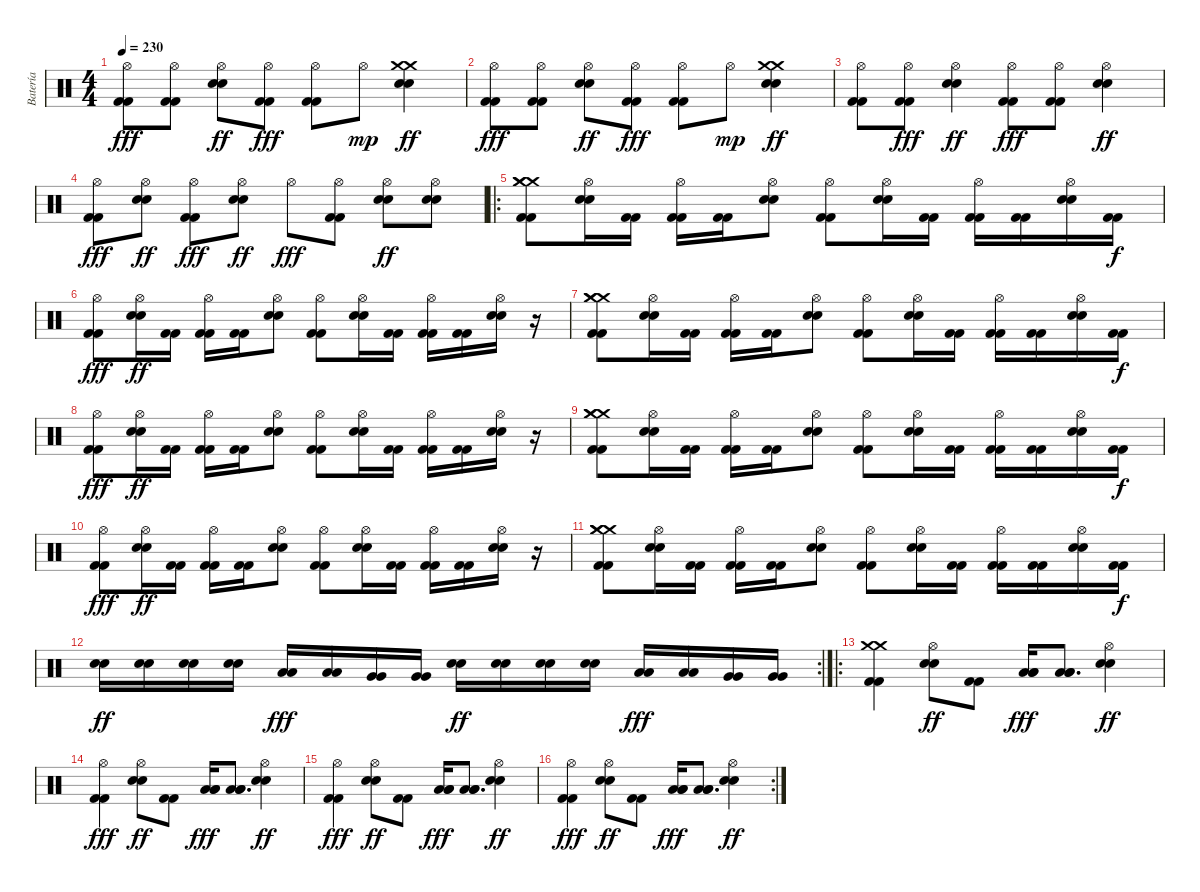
\track ("Batería" "Batería") {instrument percussion}
\staff {score}
\articulation defaults
\ts (4 4)
\tempo 230
\clef neutral
\ks c
("Hi-Hat (open)" "Kick (hit) 2" "Kick (hit) 2").8{dy fff} ("Hi-Hat (open)" "Kick (hit) 2" "Kick (hit) 2").8 ("Hi-Hat (open)" "Electric Snare (hit)" "Electric Snare (hit)").8{dy ff} ("Hi-Hat (open)" "Kick (hit) 2" "Kick (hit) 2").8{dy fff} ("Hi-Hat (open)" "Kick (hit) 2" "Kick (hit) 2").8 "Hi-Hat (open)".8{dy mp} ("Crash medium (hit)" "Crash medium (hit)" "Electric Snare (hit)" "Electric Snare (hit)").4{dy ff} |
("Hi-Hat (open)" "Kick (hit) 2" "Kick (hit) 2").8{dy fff} ("Hi-Hat (open)" "Kick (hit) 2" "Kick (hit) 2").8 ("Hi-Hat (open)" "Electric Snare (hit)" "Electric Snare (hit)").8{dy ff} ("Hi-Hat (open)" "Kick (hit) 2" "Kick (hit) 2").8{dy fff} ("Hi-Hat (open)" "Kick (hit) 2" "Kick (hit) 2").8 "Hi-Hat (open)".8{dy mp} ("Crash medium (hit)" "Crash medium (hit)" "Electric Snare (hit)" "Electric Snare (hit)").4{dy ff} |
("Hi-Hat (open)" "Kick (hit) 2" "Kick (hit) 2").8 ("Hi-Hat (open)" "Kick (hit) 2" "Kick (hit) 2").8{dy fff} ("Hi-Hat (open)" "Electric Snare (hit)" "Electric Snare (hit)").4{dy ff} ("Hi-Hat (open)" "Kick (hit) 2" "Kick (hit) 2").8{dy fff} ("Hi-Hat (open)" "Kick (hit) 2" "Kick (hit) 2").8 ("Hi-Hat (open)" "Electric Snare (hit)" "Electric Snare (hit)").4{dy ff} |
("Hi-Hat (open)" "Kick (hit) 2" "Kick (hit) 2").8{dy fff} ("Hi-Hat (open)" "Electric Snare (hit)" "Electric Snare (hit)").8{dy ff} ("Hi-Hat (open)" "Kick (hit) 2" "Kick (hit) 2").8{dy fff} ("Hi-Hat (open)" "Electric Snare (hit)" "Electric Snare (hit)").8{dy ff} "Hi-Hat (open)".8{dy fff} ("Hi-Hat (open)" "Kick (hit) 2" "Kick (hit) 2").8 ("Hi-Hat (open)" "Electric Snare (hit)" "Electric Snare (hit)").8{dy ff} ("Hi-Hat (open)" "Electric Snare (hit)" "Electric Snare (hit)").8 |
\ro
("Crash medium (hit)" "Crash medium (hit)" "Crash medium (hit)" "Kick (hit) 2" "Kick (hit) 2").8 ("Hi-Hat (open)" "Electric Snare (hit)" "Electric Snare (hit)").16 ("Kick (hit) 2" "Kick (hit) 2").16 ("Hi-Hat (open)" "Kick (hit) 2" "Kick (hit) 2").16 ("Kick (hit) 2" "Kick (hit) 2").16 ("Hi-Hat (open)" "Electric Snare (hit)" "Electric Snare (hit)").8 ("Hi-Hat (open)" "Kick (hit) 2" "Kick (hit) 2").8 ("Hi-Hat (open)" "Electric Snare (hit)" "Electric Snare (hit)").16 ("Kick (hit) 2" "Kick (hit) 2").16 ("Hi-Hat (open)" "Kick (hit) 2" "Kick (hit) 2").16 ("Kick (hit) 2" "Kick (hit) 2").16 ("Hi-Hat (open)" "Electric Snare (hit)" "Electric Snare (hit)").16 ("Kick (hit) 2" "Kick (hit) 2").16{dy f} |
("Hi-Hat (open)" "Kick (hit) 2" "Kick (hit) 2").8{dy fff} ("Hi-Hat (open)" "Electric Snare (hit)" "Electric Snare (hit)").16{dy ff} ("Kick (hit) 2" "Kick (hit) 2").16 ("Hi-Hat (open)" "Kick (hit) 2" "Kick (hit) 2").16 ("Kick (hit) 2" "Kick (hit) 2").16 ("Hi-Hat (open)" "Electric Snare (hit)" "Electric Snare (hit)").8 ("Hi-Hat (open)" "Kick (hit) 2" "Kick (hit) 2").8 ("Hi-Hat (open)" "Electric Snare (hit)" "Electric Snare (hit)").16 ("Kick (hit) 2" "Kick (hit) 2").16 ("Hi-Hat (open)" "Kick (hit) 2" "Kick (hit) 2").16 ("Kick (hit) 2" "Kick (hit) 2").16 ("Hi-Hat (open)" "Electric Snare (hit)" "Electric Snare (hit)").16 r.16 |
("Crash medium (hit)" "Crash medium (hit)" "Crash medium (hit)" "Kick (hit) 2" "Kick (hit) 2").8 ("Hi-Hat (open)" "Electric Snare (hit)" "Electric Snare (hit)").16 ("Kick (hit) 2" "Kick (hit) 2").16 ("Hi-Hat (open)" "Kick (hit) 2" "Kick (hit) 2").16 ("Kick (hit) 2" "Kick (hit) 2").16 ("Hi-Hat (open)" "Electric Snare (hit)" "Electric Snare (hit)").8 ("Hi-Hat (open)" "Kick (hit) 2" "Kick (hit) 2").8 ("Hi-Hat (open)" "Electric Snare (hit)" "Electric Snare (hit)").16 ("Kick (hit) 2" "Kick (hit) 2").16 ("Hi-Hat (open)" "Kick (hit) 2" "Kick (hit) 2").16 ("Kick (hit) 2" "Kick (hit) 2").16 ("Hi-Hat (open)" "Electric Snare (hit)" "Electric Snare (hit)").16 ("Kick (hit) 2" "Kick (hit) 2").16{dy f} |
("Hi-Hat (open)" "Kick (hit) 2" "Kick (hit) 2").8{dy fff} ("Hi-Hat (open)" "Electric Snare (hit)" "Electric Snare (hit)").16{dy ff} ("Kick (hit) 2" "Kick (hit) 2").16 ("Hi-Hat (open)" "Kick (hit) 2" "Kick (hit) 2").16 ("Kick (hit) 2" "Kick (hit) 2").16 ("Hi-Hat (open)" "Electric Snare (hit)" "Electric Snare (hit)").8 ("Hi-Hat (open)" "Kick (hit) 2" "Kick (hit) 2").8 ("Hi-Hat (open)" "Electric Snare (hit)" "Electric Snare (hit)").16 ("Kick (hit) 2" "Kick (hit) 2").16 ("Hi-Hat (open)" "Kick (hit) 2" "Kick (hit) 2").16 ("Kick (hit) 2" "Kick (hit) 2").16 ("Hi-Hat (open)" "Electric Snare (hit)" "Electric Snare (hit)").16 r.16 |
("Crash medium (hit)" "Crash medium (hit)" "Crash medium (hit)" "Kick (hit) 2" "Kick (hit) 2").8 ("Hi-Hat (open)" "Electric Snare (hit)" "Electric Snare (hit)").16 ("Kick (hit) 2" "Kick (hit) 2").16 ("Hi-Hat (open)" "Kick (hit) 2" "Kick (hit) 2").16 ("Kick (hit) 2" "Kick (hit) 2").16 ("Hi-Hat (open)" "Electric Snare (hit)" "Electric Snare (hit)").8 ("Hi-Hat (open)" "Kick (hit) 2" "Kick (hit) 2").8 ("Hi-Hat (open)" "Electric Snare (hit)" "Electric Snare (hit)").16 ("Kick (hit) 2" "Kick (hit) 2").16 ("Hi-Hat (open)" "Kick (hit) 2" "Kick (hit) 2").16 ("Kick (hit) 2" "Kick (hit) 2").16 ("Hi-Hat (open)" "Electric Snare (hit)" "Electric Snare (hit)").16 ("Kick (hit) 2" "Kick (hit) 2").16{dy f} |
("Hi-Hat (open)" "Kick (hit) 2" "Kick (hit) 2").8{dy fff} ("Hi-Hat (open)" "Electric Snare (hit)" "Electric Snare (hit)").16{dy ff} ("Kick (hit) 2" "Kick (hit) 2").16 ("Hi-Hat (open)" "Kick (hit) 2" "Kick (hit) 2").16 ("Kick (hit) 2" "Kick (hit) 2").16 ("Hi-Hat (open)" "Electric Snare (hit)" "Electric Snare (hit)").8 ("Hi-Hat (open)" "Kick (hit) 2" "Kick (hit) 2").8 ("Hi-Hat (open)" "Electric Snare (hit)" "Electric Snare (hit)").16 ("Kick (hit) 2" "Kick (hit) 2").16 ("Hi-Hat (open)" "Kick (hit) 2" "Kick (hit) 2").16 ("Kick (hit) 2" "Kick (hit) 2").16 ("Hi-Hat (open)" "Electric Snare (hit)" "Electric Snare (hit)").16 r.16 |
("Crash medium (hit)" "Crash medium (hit)" "Crash medium (hit)" "Kick (hit) 2" "Kick (hit) 2").8 ("Hi-Hat (open)" "Electric Snare (hit)" "Electric Snare (hit)").16 ("Kick (hit) 2" "Kick (hit) 2").16 ("Hi-Hat (open)" "Kick (hit) 2" "Kick (hit) 2").16 ("Kick (hit) 2" "Kick (hit) 2").16 ("Hi-Hat (open)" "Electric Snare (hit)" "Electric Snare (hit)").8 ("Hi-Hat (open)" "Kick (hit) 2" "Kick (hit) 2").8 ("Hi-Hat (open)" "Electric Snare (hit)" "Electric Snare (hit)").16 ("Kick (hit) 2" "Kick (hit) 2").16 ("Hi-Hat (open)" "Kick (hit) 2" "Kick (hit) 2").16 ("Kick (hit) 2" "Kick (hit) 2").16 ("Hi-Hat (open)" "Electric Snare (hit)" "Electric Snare (hit)").16 ("Kick (hit) 2" "Kick (hit) 2").16{dy f} |
\rc 2
("Electric Snare (hit)" "Electric Snare (hit)").16{dy ff} ("Electric Snare (hit)" "Electric Snare (hit)").16 ("Electric Snare (hit)" "Electric Snare (hit)").16 ("Electric Snare (hit)" "Electric Snare (hit)").16 ("Low Tom (hit)" "Low Tom (hit)").16{dy fff} ("Low Tom (hit)" "Low Tom (hit)").16 ("Very Low Tom (hit)" "Very Low Tom (hit)").16 ("Very Low Tom (hit)" "Very Low Tom (hit)").16 ("Electric Snare (hit)" "Electric Snare (hit)").16{dy ff} ("Electric Snare (hit)" "Electric Snare (hit)").16 ("Electric Snare (hit)" "Electric Snare (hit)").16 ("Electric Snare (hit)" "Electric Snare (hit)").16 ("Low Tom (hit)" "Low Tom (hit)").16{dy fff} ("Low Tom (hit)" "Low Tom (hit)").16 ("Very Low Tom (hit)" "Very Low Tom (hit)").16 ("Very Low Tom (hit)" "Very Low Tom (hit)").16 |
\ro
("Crash medium (hit)" "Crash medium (hit)" "Kick (hit) 2" "Kick (hit) 2").4 ("Hi-Hat (open)" "Electric Snare (hit)" "Electric Snare (hit)").8{dy ff} ("Kick (hit) 2" "Kick (hit) 2").8 ("Low Tom (hit)" "Low Floor Tom (hit)" "Low Floor Tom (hit)").16{dy fff} ("Low Tom (hit)" "Low Floor Tom (hit)" "Low Floor Tom (hit)").8{d} ("Hi-Hat (open)" "Electric Snare (hit)" "Electric Snare (hit)").4{dy ff} |
("Hi-Hat (open)" "Kick (hit) 2" "Kick (hit) 2").4{dy fff} ("Hi-Hat (open)" "Electric Snare (hit)" "Electric Snare (hit)").8{dy ff} ("Kick (hit) 2" "Kick (hit) 2").8 ("Low Tom (hit)" "Low Floor Tom (hit)" "Low Floor Tom (hit)").16{dy fff} ("Low Tom (hit)" "Low Floor Tom (hit)" "Low Floor Tom (hit)").8{d} ("Hi-Hat (open)" "Electric Snare (hit)" "Electric Snare (hit)").4{dy ff} |
("Hi-Hat (open)" "Kick (hit) 2" "Kick (hit) 2").4{dy fff} ("Hi-Hat (open)" "Electric Snare (hit)" "Electric Snare (hit)").8{dy ff} ("Kick (hit) 2" "Kick (hit) 2").8 ("Low Tom (hit)" "Low Floor Tom (hit)" "Low Floor Tom (hit)").16{dy fff} ("Low Tom (hit)" "Low Floor Tom (hit)" "Low Floor Tom (hit)").8{d} ("Hi-Hat (open)" "Electric Snare (hit)" "Electric Snare (hit)").4{dy ff} |
\rc 2
("Hi-Hat (open)" "Kick (hit) 2" "Kick (hit) 2").4{dy fff} ("Hi-Hat (open)" "Electric Snare (hit)" "Electric Snare (hit)").8{dy ff} ("Kick (hit) 2" "Kick (hit) 2").8 ("Low Tom (hit)" "Low Floor Tom (hit)" "Low Floor Tom (hit)").16{dy fff} ("Low Tom (hit)" "Low Floor Tom (hit)" "Low Floor Tom (hit)").8{d} ("Hi-Hat (open)" "Electric Snare (hit)" "Electric Snare (hit)").4{dy ff}
